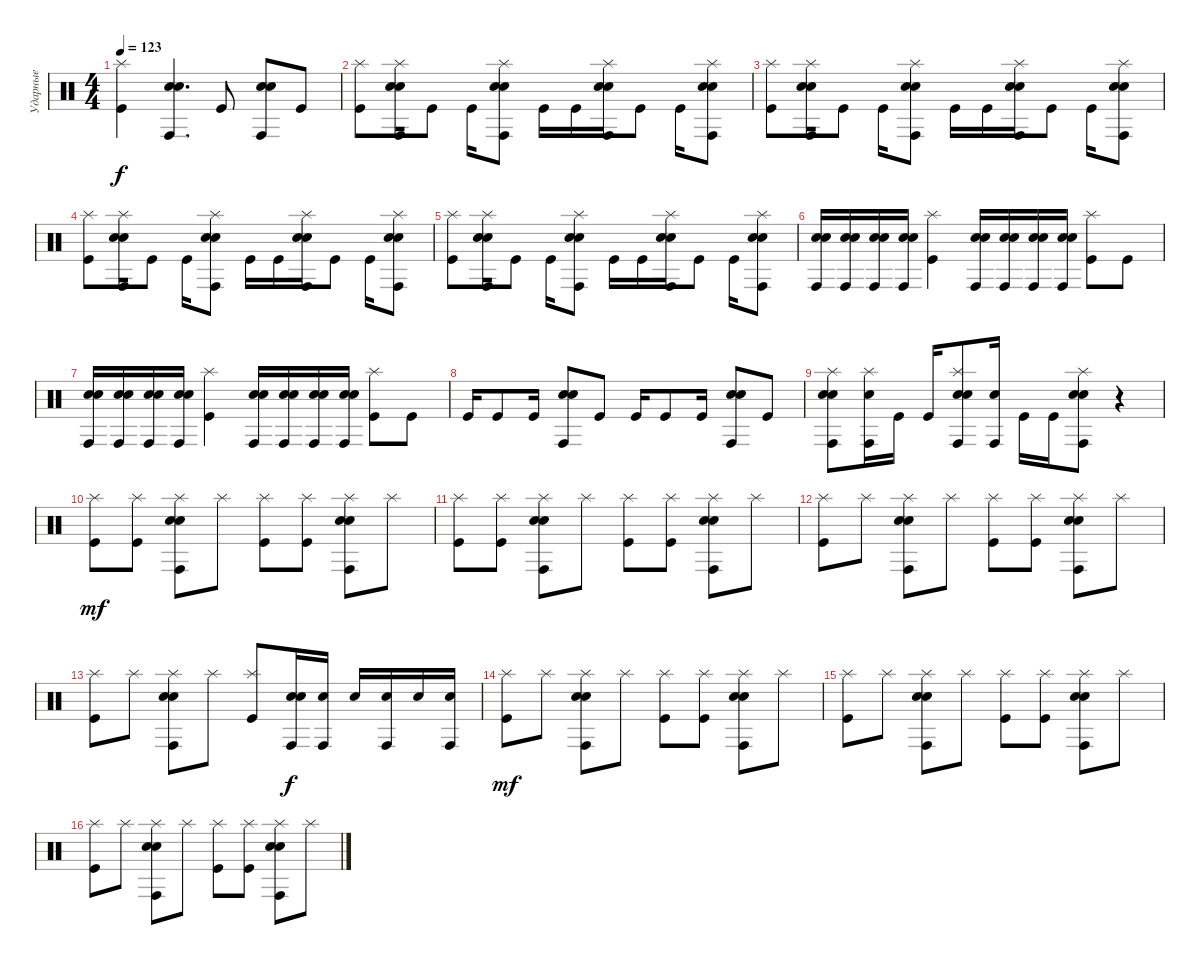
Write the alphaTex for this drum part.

\track ("Ударные" "Ударные") {instrument percussion}
\staff {score}
\articulation defaults
\ts (4 4)
\tempo 123
\clef neutral
\ks c
("Splash (hit)" "Kick (hit)").4{dy f} ("Conga high (hit)" "Electric Snare (hit)" "Snare (hit) 2").4{d} "Kick (hit)".8 ("Conga high (hit)" "Electric Snare (hit)" "Snare (hit) 2").8 "Kick (hit)".8 |
("Splash (hit)" "Kick (hit)").8 ("Splash (hit)" "Conga high (hit)" "Electric Snare (hit)" "Snare (hit) 2").16 "Kick (hit)".8 "Kick (hit)".16 ("Splash (hit)" "Conga high (hit)" "Electric Snare (hit)" "Snare (hit) 2").8 "Kick (hit)".16 "Kick (hit)".16 ("Splash (hit)" "Conga high (hit)" "Electric Snare (hit)" "Snare (hit) 2").16 "Kick (hit)".8 "Kick (hit)".16 ("Splash (hit)" "Conga high (hit)" "Electric Snare (hit)" "Snare (hit) 2").8 |
("Splash (hit)" "Kick (hit)").8 ("Splash (hit)" "Conga high (hit)" "Electric Snare (hit)" "Snare (hit) 2").16 "Kick (hit)".8 "Kick (hit)".16 ("Splash (hit)" "Conga high (hit)" "Electric Snare (hit)" "Snare (hit) 2").8 "Kick (hit)".16 "Kick (hit)".16 ("Splash (hit)" "Conga high (hit)" "Electric Snare (hit)" "Snare (hit) 2").16 "Kick (hit)".8 "Kick (hit)".16 ("Splash (hit)" "Conga high (hit)" "Electric Snare (hit)" "Snare (hit) 2").8 |
("Splash (hit)" "Kick (hit)").8 ("Splash (hit)" "Conga high (hit)" "Electric Snare (hit)" "Snare (hit) 2").16 "Kick (hit)".8 "Kick (hit)".16 ("Splash (hit)" "Conga high (hit)" "Electric Snare (hit)" "Snare (hit) 2").8 "Kick (hit)".16 "Kick (hit)".16 ("Splash (hit)" "Conga high (hit)" "Electric Snare (hit)" "Snare (hit) 2").16 "Kick (hit)".8 "Kick (hit)".16 ("Splash (hit)" "Conga high (hit)" "Electric Snare (hit)" "Snare (hit) 2").8 |
("Splash (hit)" "Kick (hit)").8 ("Splash (hit)" "Conga high (hit)" "Electric Snare (hit)" "Snare (hit) 2").16 "Kick (hit)".8 "Kick (hit)".16 ("Splash (hit)" "Conga high (hit)" "Electric Snare (hit)" "Snare (hit) 2").8 "Kick (hit)".16 "Kick (hit)".16 ("Splash (hit)" "Conga high (hit)" "Electric Snare (hit)" "Snare (hit) 2").16 "Kick (hit)".8 "Kick (hit)".16 ("Splash (hit)" "Conga high (hit)" "Electric Snare (hit)" "Snare (hit) 2").8 |
("Conga high (hit)" "Electric Snare (hit)" "Snare (hit) 2").16 ("Conga high (hit)" "Electric Snare (hit)" "Snare (hit) 2").16 ("Conga high (hit)" "Electric Snare (hit)" "Snare (hit) 2").16 ("Conga high (hit)" "Electric Snare (hit)" "Snare (hit) 2").16 ("Splash (hit)" "Kick (hit)").4 ("Conga high (hit)" "Electric Snare (hit)" "Snare (hit) 2").16 ("Conga high (hit)" "Electric Snare (hit)" "Snare (hit) 2").16 ("Conga high (hit)" "Electric Snare (hit)" "Snare (hit) 2").16 ("Conga high (hit)" "Electric Snare (hit)" "Snare (hit) 2").16 ("Splash (hit)" "Kick (hit)").8 "Kick (hit)".8 |
("Conga high (hit)" "Electric Snare (hit)" "Snare (hit) 2").16 ("Conga high (hit)" "Electric Snare (hit)" "Snare (hit) 2").16 ("Conga high (hit)" "Electric Snare (hit)" "Snare (hit) 2").16 ("Conga high (hit)" "Electric Snare (hit)" "Snare (hit) 2").16 ("Splash (hit)" "Kick (hit)").4 ("Conga high (hit)" "Electric Snare (hit)" "Snare (hit) 2").16 ("Conga high (hit)" "Electric Snare (hit)" "Snare (hit) 2").16 ("Conga high (hit)" "Electric Snare (hit)" "Snare (hit) 2").16 ("Conga high (hit)" "Electric Snare (hit)" "Snare (hit) 2").16 ("Splash (hit)" "Kick (hit)").8 "Kick (hit)".8 |
"Kick (hit)".16 "Kick (hit)".8 "Kick (hit)".16 ("Conga high (hit)" "Electric Snare (hit)" "Snare (hit) 2").8 "Kick (hit)".8 "Kick (hit)".16 "Kick (hit)".8 "Kick (hit)".16 ("Conga high (hit)" "Electric Snare (hit)" "Snare (hit) 2").8 "Kick (hit)".8 |
("Splash (hit)" "Conga high (hit)" "Electric Snare (hit)" "Snare (hit) 2").8 ("Splash (hit)" "Conga high (hit)" "Electric Snare (hit)").16 "Kick (hit)".16 "Kick (hit)".16 ("Splash (hit)" "Conga high (hit)" "Electric Snare (hit)" "Snare (hit) 2").8 ("Conga high (hit)" "Electric Snare (hit)").16 "Kick (hit)".16 "Kick (hit)".16 ("Splash (hit)" "Conga high (hit)" "Electric Snare (hit)" "Snare (hit) 2").8 r.4 |
("Splash (hit)" "Kick (hit)").8{dy mf} ("Splash (hit)" "Kick (hit)").8 ("Splash (hit)" "Conga high (hit)" "Electric Snare (hit)" "Snare (hit) 2").8 "Splash (hit)".8 ("Splash (hit)" "Kick (hit)").8 ("Splash (hit)" "Kick (hit)").8 ("Splash (hit)" "Conga high (hit)" "Electric Snare (hit)" "Snare (hit) 2").8 "Splash (hit)".8 |
("Splash (hit)" "Kick (hit)").8 ("Splash (hit)" "Kick (hit)").8 ("Splash (hit)" "Conga high (hit)" "Electric Snare (hit)" "Snare (hit) 2").8 "Splash (hit)".8 ("Splash (hit)" "Kick (hit)").8 ("Splash (hit)" "Kick (hit)").8 ("Splash (hit)" "Conga high (hit)" "Electric Snare (hit)" "Snare (hit) 2").8 "Splash (hit)".8 |
("Splash (hit)" "Kick (hit)").8 "Splash (hit)".8 ("Splash (hit)" "Conga high (hit)" "Electric Snare (hit)" "Snare (hit) 2").8 "Splash (hit)".8 ("Splash (hit)" "Kick (hit)").8 ("Splash (hit)" "Kick (hit)").8 ("Splash (hit)" "Conga high (hit)" "Electric Snare (hit)" "Snare (hit) 2").8 "Splash (hit)".8 |
("Splash (hit)" "Kick (hit)").8 "Splash (hit)".8 ("Splash (hit)" "Conga high (hit)" "Electric Snare (hit)" "Snare (hit) 2").8 "Splash (hit)".8 ("Splash (hit)" "Kick (hit)").8 ("Conga high (hit)" "Electric Snare (hit)" "Snare (hit) 2").16{dy f} ("Conga high (hit)" "Electric Snare (hit)").16 "Electric Snare (hit)".16 ("Conga high (hit)" "Electric Snare (hit)").16 "Electric Snare (hit)".16 ("Conga high (hit)" "Electric Snare (hit)").16 |
("Splash (hit)" "Kick (hit)").8{dy mf} "Splash (hit)".8 ("Splash (hit)" "Conga high (hit)" "Electric Snare (hit)" "Snare (hit) 2").8 "Splash (hit)".8 ("Splash (hit)" "Kick (hit)").8 ("Splash (hit)" "Kick (hit)").8 ("Splash (hit)" "Conga high (hit)" "Electric Snare (hit)" "Snare (hit) 2").8 "Splash (hit)".8 |
("Splash (hit)" "Kick (hit)").8 "Splash (hit)".8 ("Splash (hit)" "Conga high (hit)" "Electric Snare (hit)" "Snare (hit) 2").8 "Splash (hit)".8 ("Splash (hit)" "Kick (hit)").8 ("Splash (hit)" "Kick (hit)").8 ("Splash (hit)" "Conga high (hit)" "Electric Snare (hit)" "Snare (hit) 2").8 "Splash (hit)".8 |
("Splash (hit)" "Kick (hit)").8 "Splash (hit)".8 ("Splash (hit)" "Conga high (hit)" "Electric Snare (hit)" "Snare (hit) 2").8 "Splash (hit)".8 ("Splash (hit)" "Kick (hit)").8 ("Splash (hit)" "Kick (hit)").8 ("Splash (hit)" "Conga high (hit)" "Electric Snare (hit)" "Snare (hit) 2").8 "Splash (hit)".8
